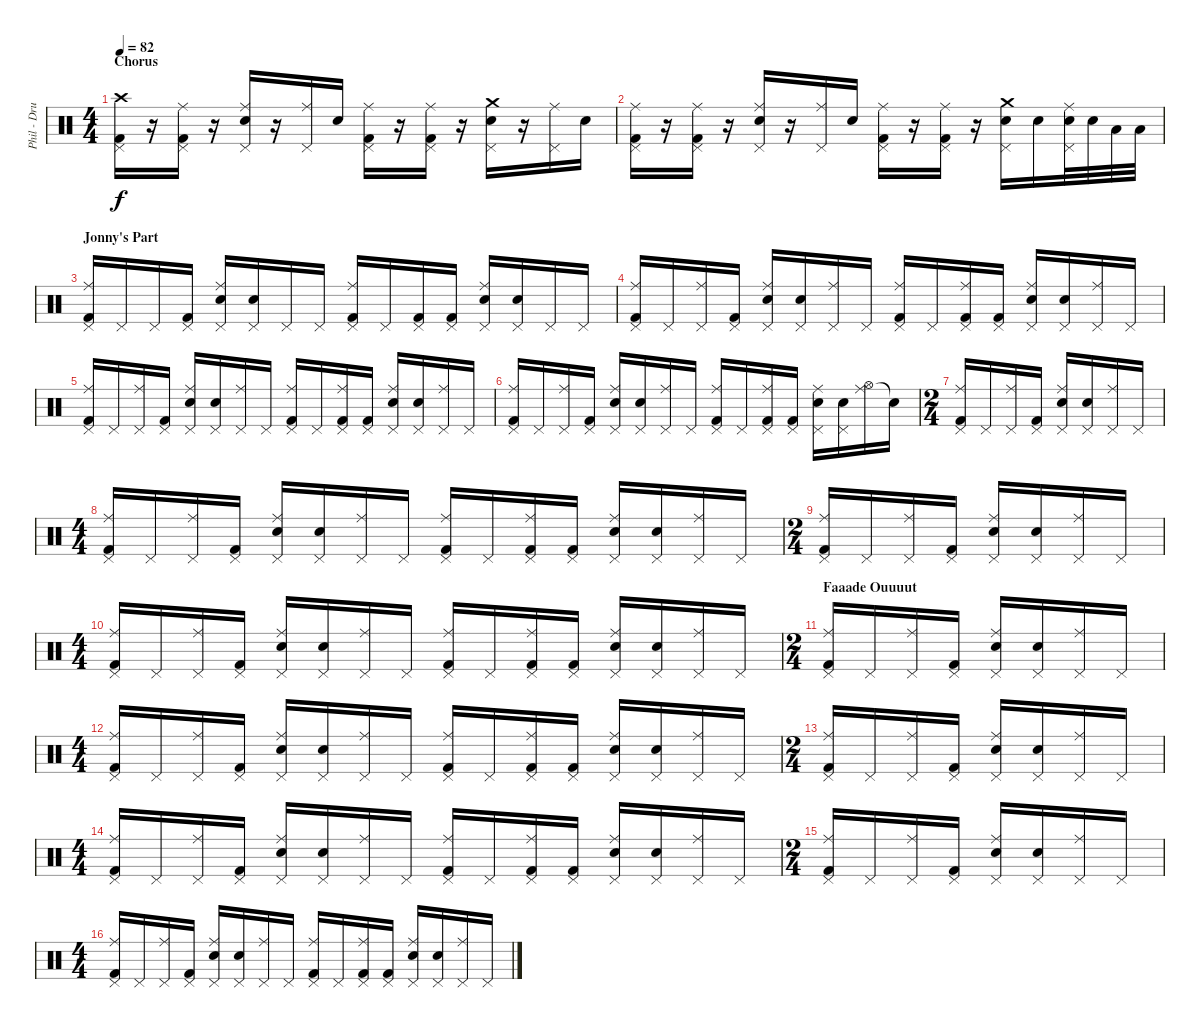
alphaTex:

\track ("Phil - Drums" "Phil - Dru") {instrument percussion}
\staff {score}
\articulation defaults
\ts (4 4)
\section ("" "Chorus")
\tempo 82
\clef neutral
\ks c
("Crash high (hit)" "Kick (hit) 2" "Pedal Hi-Hat (hit)").16{dy f} r.16 ("Ride (middle)" "Kick (hit) 2" "Pedal Hi-Hat (hit)").16 r.16 ("Ride (middle)" "Electric Snare (hit)" "Pedal Hi-Hat (hit)").16 r.16 ("Ride (middle)" "Pedal Hi-Hat (hit)").16 "Electric Snare (hit)".16 ("Ride (middle)" "Kick (hit) 2" "Pedal Hi-Hat (hit)").16 r.16 ("Ride (middle)" "Kick (hit) 2" "Pedal Hi-Hat (hit)").16 r.16 ("Crash medium (hit)" "Electric Snare (hit)" "Pedal Hi-Hat (hit)").16 r.16 ("Ride (middle)" "Pedal Hi-Hat (hit)").16 "Electric Snare (hit)".16 |
("Ride (middle)" "Kick (hit) 2" "Pedal Hi-Hat (hit)").16 r.16 ("Ride (middle)" "Kick (hit) 2" "Pedal Hi-Hat (hit)").16 r.16 ("Ride (middle)" "Electric Snare (hit)" "Pedal Hi-Hat (hit)").16 r.16 ("Ride (middle)" "Pedal Hi-Hat (hit)").16 "Electric Snare (hit)".16 ("Ride (middle)" "Kick (hit) 2" "Pedal Hi-Hat (hit)").16 r.16 ("Ride (middle)" "Kick (hit) 2" "Pedal Hi-Hat (hit)").16 r.16 ("Crash medium (hit)" "Electric Snare (hit)" "Pedal Hi-Hat (hit)").16 "Electric Snare (hit)".16 ("Ride (middle)" "Electric Snare (hit)" "Pedal Hi-Hat (hit)").32 "Electric Snare (hit)".32 "Low Tom (hit)".32 "Low Tom (hit)".32 |
\section ("" "Jonny's Part")
("Ride (middle)" "Kick (hit) 2" "Pedal Hi-Hat (hit)").16 "Pedal Hi-Hat (hit)".16 "Pedal Hi-Hat (hit)".16 ("Kick (hit) 2" "Pedal Hi-Hat (hit)").16 ("Ride (middle)" "Electric Snare (hit)" "Pedal Hi-Hat (hit)").16 ("Electric Snare (hit)" "Pedal Hi-Hat (hit)").16 "Pedal Hi-Hat (hit)".16 "Pedal Hi-Hat (hit)".16 ("Ride (middle)" "Kick (hit) 2" "Pedal Hi-Hat (hit)").16 "Pedal Hi-Hat (hit)".16 ("Kick (hit) 2" "Pedal Hi-Hat (hit)").16 ("Kick (hit) 2" "Pedal Hi-Hat (hit)").16 ("Ride (middle)" "Electric Snare (hit)" "Pedal Hi-Hat (hit)").16 ("Electric Snare (hit)" "Pedal Hi-Hat (hit)").16 "Pedal Hi-Hat (hit)".16 "Pedal Hi-Hat (hit)".16 |
("Ride (middle)" "Kick (hit) 2" "Pedal Hi-Hat (hit)").16 "Pedal Hi-Hat (hit)".16 ("Ride (middle)" "Pedal Hi-Hat (hit)").16 ("Kick (hit) 2" "Pedal Hi-Hat (hit)").16 ("Ride (middle)" "Electric Snare (hit)" "Pedal Hi-Hat (hit)").16 ("Electric Snare (hit)" "Pedal Hi-Hat (hit)").16 ("Ride (middle)" "Pedal Hi-Hat (hit)").16 "Pedal Hi-Hat (hit)".16 ("Ride (middle)" "Kick (hit) 2" "Pedal Hi-Hat (hit)").16 "Pedal Hi-Hat (hit)".16 ("Ride (middle)" "Kick (hit) 2" "Pedal Hi-Hat (hit)").16 ("Kick (hit) 2" "Pedal Hi-Hat (hit)").16 ("Ride (middle)" "Electric Snare (hit)" "Pedal Hi-Hat (hit)").16 ("Electric Snare (hit)" "Pedal Hi-Hat (hit)").16 ("Ride (middle)" "Pedal Hi-Hat (hit)").16 "Pedal Hi-Hat (hit)".16 |
("Ride (middle)" "Kick (hit) 2" "Pedal Hi-Hat (hit)").16 "Pedal Hi-Hat (hit)".16 ("Ride (middle)" "Pedal Hi-Hat (hit)").16 ("Kick (hit) 2" "Pedal Hi-Hat (hit)").16 ("Ride (middle)" "Electric Snare (hit)" "Pedal Hi-Hat (hit)").16 ("Electric Snare (hit)" "Pedal Hi-Hat (hit)").16 ("Ride (middle)" "Pedal Hi-Hat (hit)").16 "Pedal Hi-Hat (hit)".16 ("Ride (middle)" "Kick (hit) 2" "Pedal Hi-Hat (hit)").16 "Pedal Hi-Hat (hit)".16 ("Ride (middle)" "Kick (hit) 2" "Pedal Hi-Hat (hit)").16 ("Kick (hit) 2" "Pedal Hi-Hat (hit)").16 ("Ride (middle)" "Electric Snare (hit)" "Pedal Hi-Hat (hit)").16 ("Electric Snare (hit)" "Pedal Hi-Hat (hit)").16 ("Ride (middle)" "Pedal Hi-Hat (hit)").16 "Pedal Hi-Hat (hit)".16 |
("Ride (middle)" "Kick (hit) 2" "Pedal Hi-Hat (hit)").16 "Pedal Hi-Hat (hit)".16 ("Ride (middle)" "Pedal Hi-Hat (hit)").16 ("Kick (hit) 2" "Pedal Hi-Hat (hit)").16 ("Ride (middle)" "Electric Snare (hit)" "Pedal Hi-Hat (hit)").16 ("Electric Snare (hit)" "Pedal Hi-Hat (hit)").16 ("Ride (middle)" "Pedal Hi-Hat (hit)").16 "Pedal Hi-Hat (hit)".16 ("Ride (middle)" "Kick (hit) 2" "Pedal Hi-Hat (hit)").16 "Pedal Hi-Hat (hit)".16 ("Ride (middle)" "Kick (hit) 2" "Pedal Hi-Hat (hit)").16 ("Kick (hit) 2" "Pedal Hi-Hat (hit)").16 ("Ride (middle)" "Electric Snare (hit)" "Pedal Hi-Hat (hit)").16 ("Electric Snare (hit)" "Pedal Hi-Hat (hit)").16 ("Ride (middle)" "Hi-Hat (open)").16 "Snare (hit)"{t}.16 |
\ts (2 4)
("Ride (middle)" "Kick (hit) 2" "Pedal Hi-Hat (hit)").16 "Pedal Hi-Hat (hit)".16 ("Ride (middle)" "Pedal Hi-Hat (hit)").16 ("Kick (hit) 2" "Pedal Hi-Hat (hit)").16 ("Ride (middle)" "Electric Snare (hit)" "Pedal Hi-Hat (hit)").16 ("Electric Snare (hit)" "Pedal Hi-Hat (hit)").16 ("Ride (middle)" "Pedal Hi-Hat (hit)").16 "Pedal Hi-Hat (hit)".16 |
\ts (4 4)
("Ride (middle)" "Kick (hit) 2" "Pedal Hi-Hat (hit)").16 "Pedal Hi-Hat (hit)".16 ("Ride (middle)" "Pedal Hi-Hat (hit)").16 ("Kick (hit) 2" "Pedal Hi-Hat (hit)").16 ("Ride (middle)" "Electric Snare (hit)" "Pedal Hi-Hat (hit)").16 ("Electric Snare (hit)" "Pedal Hi-Hat (hit)").16 ("Ride (middle)" "Pedal Hi-Hat (hit)").16 "Pedal Hi-Hat (hit)".16 ("Ride (middle)" "Kick (hit) 2" "Pedal Hi-Hat (hit)").16 "Pedal Hi-Hat (hit)".16 ("Ride (middle)" "Kick (hit) 2" "Pedal Hi-Hat (hit)").16 ("Kick (hit) 2" "Pedal Hi-Hat (hit)").16 ("Ride (middle)" "Electric Snare (hit)" "Pedal Hi-Hat (hit)").16 ("Electric Snare (hit)" "Pedal Hi-Hat (hit)").16 ("Ride (middle)" "Pedal Hi-Hat (hit)").16 "Pedal Hi-Hat (hit)".16 |
\ts (2 4)
("Ride (middle)" "Kick (hit) 2" "Pedal Hi-Hat (hit)").16 "Pedal Hi-Hat (hit)".16 ("Ride (middle)" "Pedal Hi-Hat (hit)").16 ("Kick (hit) 2" "Pedal Hi-Hat (hit)").16 ("Ride (middle)" "Electric Snare (hit)" "Pedal Hi-Hat (hit)").16 ("Electric Snare (hit)" "Pedal Hi-Hat (hit)").16 ("Ride (middle)" "Pedal Hi-Hat (hit)").16 "Pedal Hi-Hat (hit)".16 |
\ts (4 4)
("Ride (middle)" "Kick (hit) 2" "Pedal Hi-Hat (hit)").16 "Pedal Hi-Hat (hit)".16 ("Ride (middle)" "Pedal Hi-Hat (hit)").16 ("Kick (hit) 2" "Pedal Hi-Hat (hit)").16 ("Ride (middle)" "Electric Snare (hit)" "Pedal Hi-Hat (hit)").16 ("Electric Snare (hit)" "Pedal Hi-Hat (hit)").16 ("Ride (middle)" "Pedal Hi-Hat (hit)").16 "Pedal Hi-Hat (hit)".16 ("Ride (middle)" "Kick (hit) 2" "Pedal Hi-Hat (hit)").16 "Pedal Hi-Hat (hit)".16 ("Ride (middle)" "Kick (hit) 2" "Pedal Hi-Hat (hit)").16 ("Kick (hit) 2" "Pedal Hi-Hat (hit)").16 ("Ride (middle)" "Electric Snare (hit)" "Pedal Hi-Hat (hit)").16 ("Electric Snare (hit)" "Pedal Hi-Hat (hit)").16 ("Ride (middle)" "Pedal Hi-Hat (hit)").16 "Pedal Hi-Hat (hit)".16 |
\ts (2 4)
\section ("" "Faaade Ouuuut")
("Ride (middle)" "Kick (hit) 2" "Pedal Hi-Hat (hit)").16{volume 13} "Pedal Hi-Hat (hit)".16 ("Ride (middle)" "Pedal Hi-Hat (hit)").16 ("Kick (hit) 2" "Pedal Hi-Hat (hit)").16 ("Ride (middle)" "Electric Snare (hit)" "Pedal Hi-Hat (hit)").16 ("Electric Snare (hit)" "Pedal Hi-Hat (hit)").16 ("Ride (middle)" "Pedal Hi-Hat (hit)").16 "Pedal Hi-Hat (hit)".16 |
\ts (4 4)
("Ride (middle)" "Kick (hit) 2" "Pedal Hi-Hat (hit)").16 "Pedal Hi-Hat (hit)".16 ("Ride (middle)" "Pedal Hi-Hat (hit)").16 ("Kick (hit) 2" "Pedal Hi-Hat (hit)").16 ("Ride (middle)" "Electric Snare (hit)" "Pedal Hi-Hat (hit)").16 ("Electric Snare (hit)" "Pedal Hi-Hat (hit)").16 ("Ride (middle)" "Pedal Hi-Hat (hit)").16 "Pedal Hi-Hat (hit)".16 ("Ride (middle)" "Kick (hit) 2" "Pedal Hi-Hat (hit)").16 "Pedal Hi-Hat (hit)".16 ("Ride (middle)" "Kick (hit) 2" "Pedal Hi-Hat (hit)").16 ("Kick (hit) 2" "Pedal Hi-Hat (hit)").16 ("Ride (middle)" "Electric Snare (hit)" "Pedal Hi-Hat (hit)").16 ("Electric Snare (hit)" "Pedal Hi-Hat (hit)").16 ("Ride (middle)" "Pedal Hi-Hat (hit)").16 "Pedal Hi-Hat (hit)".16 |
\ts (2 4)
("Ride (middle)" "Kick (hit) 2" "Pedal Hi-Hat (hit)").16{volume 11} "Pedal Hi-Hat (hit)".16 ("Ride (middle)" "Pedal Hi-Hat (hit)").16 ("Kick (hit) 2" "Pedal Hi-Hat (hit)").16 ("Ride (middle)" "Electric Snare (hit)" "Pedal Hi-Hat (hit)").16 ("Electric Snare (hit)" "Pedal Hi-Hat (hit)").16 ("Ride (middle)" "Pedal Hi-Hat (hit)").16 "Pedal Hi-Hat (hit)".16 |
\ts (4 4)
("Ride (middle)" "Kick (hit) 2" "Pedal Hi-Hat (hit)").16 "Pedal Hi-Hat (hit)".16 ("Ride (middle)" "Pedal Hi-Hat (hit)").16 ("Kick (hit) 2" "Pedal Hi-Hat (hit)").16 ("Ride (middle)" "Electric Snare (hit)" "Pedal Hi-Hat (hit)").16 ("Electric Snare (hit)" "Pedal Hi-Hat (hit)").16 ("Ride (middle)" "Pedal Hi-Hat (hit)").16 "Pedal Hi-Hat (hit)".16 ("Ride (middle)" "Kick (hit) 2" "Pedal Hi-Hat (hit)").16 "Pedal Hi-Hat (hit)".16 ("Ride (middle)" "Kick (hit) 2" "Pedal Hi-Hat (hit)").16 ("Kick (hit) 2" "Pedal Hi-Hat (hit)").16 ("Ride (middle)" "Electric Snare (hit)" "Pedal Hi-Hat (hit)").16 ("Electric Snare (hit)" "Pedal Hi-Hat (hit)").16 ("Ride (middle)" "Pedal Hi-Hat (hit)").16 "Pedal Hi-Hat (hit)".16 |
\ts (2 4)
("Ride (middle)" "Kick (hit) 2" "Pedal Hi-Hat (hit)").16{volume 8} "Pedal Hi-Hat (hit)".16 ("Ride (middle)" "Pedal Hi-Hat (hit)").16 ("Kick (hit) 2" "Pedal Hi-Hat (hit)").16 ("Ride (middle)" "Electric Snare (hit)" "Pedal Hi-Hat (hit)").16 ("Electric Snare (hit)" "Pedal Hi-Hat (hit)").16 ("Ride (middle)" "Pedal Hi-Hat (hit)").16 "Pedal Hi-Hat (hit)".16 |
\ts (4 4)
("Ride (middle)" "Kick (hit) 2" "Pedal Hi-Hat (hit)").16 "Pedal Hi-Hat (hit)".16 ("Ride (middle)" "Pedal Hi-Hat (hit)").16 ("Kick (hit) 2" "Pedal Hi-Hat (hit)").16 ("Ride (middle)" "Electric Snare (hit)" "Pedal Hi-Hat (hit)").16 ("Electric Snare (hit)" "Pedal Hi-Hat (hit)").16 ("Ride (middle)" "Pedal Hi-Hat (hit)").16 "Pedal Hi-Hat (hit)".16 ("Ride (middle)" "Kick (hit) 2" "Pedal Hi-Hat (hit)").16 "Pedal Hi-Hat (hit)".16 ("Ride (middle)" "Kick (hit) 2" "Pedal Hi-Hat (hit)").16 ("Kick (hit) 2" "Pedal Hi-Hat (hit)").16 ("Ride (middle)" "Electric Snare (hit)" "Pedal Hi-Hat (hit)").16 ("Electric Snare (hit)" "Pedal Hi-Hat (hit)").16 ("Ride (middle)" "Pedal Hi-Hat (hit)").16 "Pedal Hi-Hat (hit)".16
